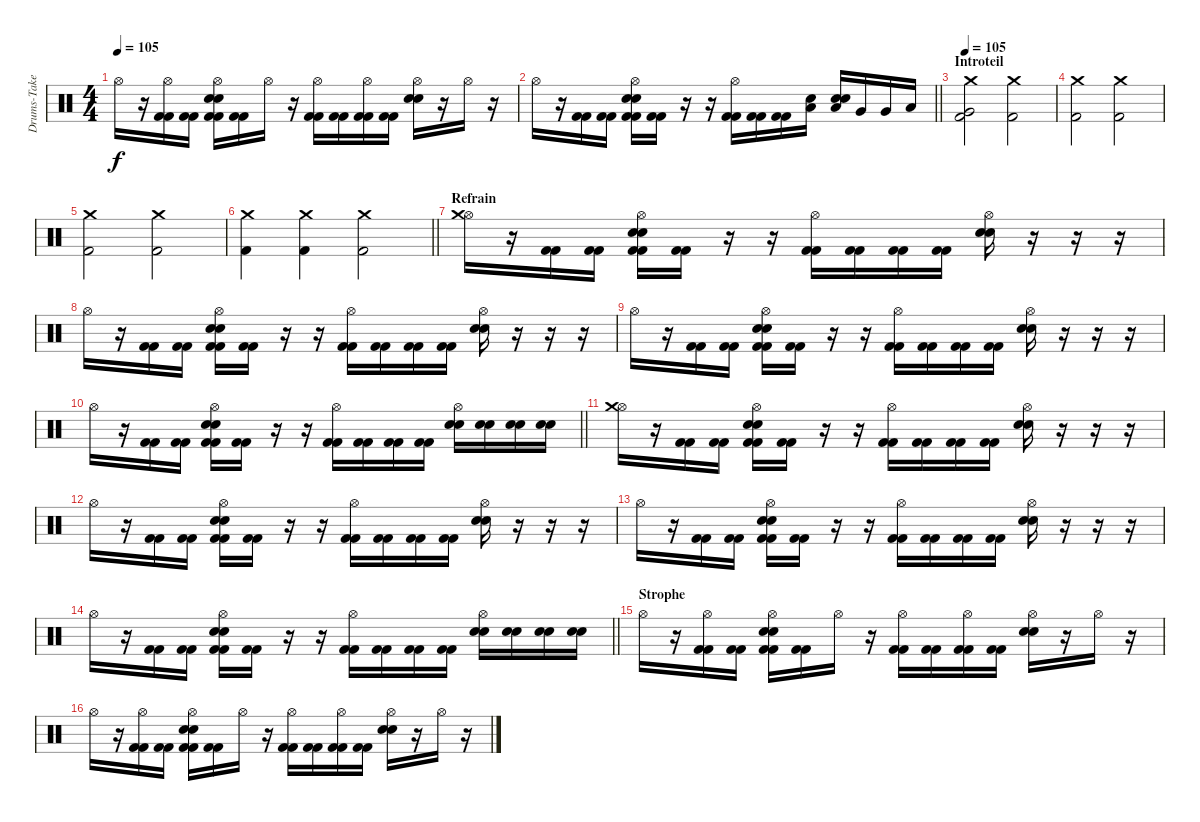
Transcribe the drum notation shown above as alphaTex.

\track ("Drums-Take the midi one!" "Drums-Take") {instrument percussion}
\staff {score}
\articulation defaults
\ts (4 4)
\tempo 105
\clef neutral
\ks c "Hi-Hat (open)".16{dy f}
r.16 ("Kick (hit) 2" "Kick (hit) 2" "Hi-Hat (open)").16 ("Kick (hit) 2" "Kick (hit) 2").16 ("Kick (hit) 2" "Kick (hit) 2" "Hi-Hat (open)" "Electric Snare (hit)" "Electric Snare (hit)").16 ("Kick (hit) 2" "Kick (hit) 2").16 "Hi-Hat (open)".16 r.16 ("Kick (hit) 2" "Kick (hit) 2" "Hi-Hat (open)").16 ("Kick (hit) 2" "Kick (hit) 2").16 ("Kick (hit) 2" "Kick (hit) 2" "Hi-Hat (open)").16 ("Kick (hit) 2" "Kick (hit) 2").16 ("Hi-Hat (open)" "Electric Snare (hit)" "Electric Snare (hit)").16 r.16 "Hi-Hat (open)".16 r.16 |
\barLineRight lightlight "Hi-Hat (open)".16
r.16 ("Kick (hit) 2" "Kick (hit) 2").16 ("Kick (hit) 2" "Kick (hit) 2").16 ("Kick (hit) 2" "Kick (hit) 2" "Hi-Hat (open)" "Electric Snare (hit)" "Electric Snare (hit)").16 ("Kick (hit) 2" "Kick (hit) 2").16 r.16 r.16 ("Kick (hit) 2" "Kick (hit) 2" "Hi-Hat (open)").16 ("Kick (hit) 2" "Kick (hit) 2").16 ("Kick (hit) 2" "Kick (hit) 2").16 ("Low Tom (hit)" "Electric Snare (hit)").16 ("Low Tom (hit)" "Electric Snare (hit)" "Electric Snare (hit)").16 "Very Low Tom (hit)".16 "Very Low Tom (hit)".16 "Low Floor Tom (hit)".16 |
\section ("" "Introteil")
\tempo 105
("Kick (hit) 2" "Crash medium (hit)" "Very Low Tom (hit)").2 ("Kick (hit) 2" "Crash medium (hit)").2 |
("Kick (hit) 2" "Crash medium (hit)").2 ("Kick (hit) 2" "Crash medium (hit)").2 |
("Kick (hit) 2" "Crash medium (hit)").2 ("Kick (hit) 2" "Crash medium (hit)").2 |
\barLineRight lightlight
("Kick (hit) 2" "Crash medium (hit)").4 ("Kick (hit) 2" "Crash medium (hit)").4 ("Kick (hit) 2" "Crash medium (hit)").2 |
\section ("" "Refrain")
("Hi-Hat (open)" "Crash medium (hit)").16 r.16 ("Kick (hit) 2" "Kick (hit) 2").16 ("Kick (hit) 2" "Kick (hit) 2").16 ("Kick (hit) 2" "Kick (hit) 2" "Hi-Hat (open)" "Electric Snare (hit)" "Electric Snare (hit)").16 ("Kick (hit) 2" "Kick (hit) 2").16 r.16 r.16 ("Kick (hit) 2" "Kick (hit) 2" "Hi-Hat (open)").16 ("Kick (hit) 2" "Kick (hit) 2").16 ("Kick (hit) 2" "Kick (hit) 2").16 ("Kick (hit) 2" "Kick (hit) 2").16 ("Hi-Hat (open)" "Electric Snare (hit)" "Electric Snare (hit)").16 r.16 r.16 r.16 |
"Hi-Hat (open)".16 r.16 ("Kick (hit) 2" "Kick (hit) 2").16 ("Kick (hit) 2" "Kick (hit) 2").16 ("Kick (hit) 2" "Kick (hit) 2" "Hi-Hat (open)" "Electric Snare (hit)" "Electric Snare (hit)").16 ("Kick (hit) 2" "Kick (hit) 2").16 r.16 r.16 ("Kick (hit) 2" "Kick (hit) 2" "Hi-Hat (open)").16 ("Kick (hit) 2" "Kick (hit) 2").16 ("Kick (hit) 2" "Kick (hit) 2").16 ("Kick (hit) 2" "Kick (hit) 2").16 ("Hi-Hat (open)" "Electric Snare (hit)" "Electric Snare (hit)").16 r.16 r.16 r.16 |
"Hi-Hat (open)".16 r.16 ("Kick (hit) 2" "Kick (hit) 2").16 ("Kick (hit) 2" "Kick (hit) 2").16 ("Kick (hit) 2" "Kick (hit) 2" "Hi-Hat (open)" "Electric Snare (hit)" "Electric Snare (hit)").16 ("Kick (hit) 2" "Kick (hit) 2").16 r.16 r.16 ("Kick (hit) 2" "Kick (hit) 2" "Hi-Hat (open)").16 ("Kick (hit) 2" "Kick (hit) 2").16 ("Kick (hit) 2" "Kick (hit) 2").16 ("Kick (hit) 2" "Kick (hit) 2").16 ("Hi-Hat (open)" "Electric Snare (hit)" "Electric Snare (hit)").16 r.16 r.16 r.16 |
\barLineRight lightlight "Hi-Hat (open)".16
r.16 ("Kick (hit) 2" "Kick (hit) 2").16 ("Kick (hit) 2" "Kick (hit) 2").16 ("Kick (hit) 2" "Kick (hit) 2" "Hi-Hat (open)" "Electric Snare (hit)" "Electric Snare (hit)").16 ("Kick (hit) 2" "Kick (hit) 2").16 r.16 r.16 ("Kick (hit) 2" "Kick (hit) 2" "Hi-Hat (open)").16 ("Kick (hit) 2" "Kick (hit) 2").16 ("Kick (hit) 2" "Kick (hit) 2").16 ("Kick (hit) 2" "Kick (hit) 2").16 ("Hi-Hat (open)" "Snare (hit) 2" "Snare (hit) 2").16 ("Snare (hit) 2" "Snare (hit) 2").16 ("Snare (hit) 2" "Snare (hit) 2").16 ("Snare (hit) 2" "Snare (hit) 2").16 |
("Hi-Hat (open)" "Crash medium (hit)").16 r.16 ("Kick (hit) 2" "Kick (hit) 2").16 ("Kick (hit) 2" "Kick (hit) 2").16 ("Kick (hit) 2" "Kick (hit) 2" "Hi-Hat (open)" "Electric Snare (hit)" "Electric Snare (hit)").16 ("Kick (hit) 2" "Kick (hit) 2").16 r.16 r.16 ("Kick (hit) 2" "Kick (hit) 2" "Hi-Hat (open)").16 ("Kick (hit) 2" "Kick (hit) 2").16 ("Kick (hit) 2" "Kick (hit) 2").16 ("Kick (hit) 2" "Kick (hit) 2").16 ("Hi-Hat (open)" "Electric Snare (hit)" "Electric Snare (hit)").16 r.16 r.16 r.16 |
"Hi-Hat (open)".16 r.16 ("Kick (hit) 2" "Kick (hit) 2").16 ("Kick (hit) 2" "Kick (hit) 2").16 ("Kick (hit) 2" "Kick (hit) 2" "Hi-Hat (open)" "Electric Snare (hit)" "Electric Snare (hit)").16 ("Kick (hit) 2" "Kick (hit) 2").16 r.16 r.16 ("Kick (hit) 2" "Kick (hit) 2" "Hi-Hat (open)").16 ("Kick (hit) 2" "Kick (hit) 2").16 ("Kick (hit) 2" "Kick (hit) 2").16 ("Kick (hit) 2" "Kick (hit) 2").16 ("Hi-Hat (open)" "Electric Snare (hit)" "Electric Snare (hit)").16 r.16 r.16 r.16 |
"Hi-Hat (open)".16 r.16 ("Kick (hit) 2" "Kick (hit) 2").16 ("Kick (hit) 2" "Kick (hit) 2").16 ("Kick (hit) 2" "Kick (hit) 2" "Hi-Hat (open)" "Electric Snare (hit)" "Electric Snare (hit)").16 ("Kick (hit) 2" "Kick (hit) 2").16 r.16 r.16 ("Kick (hit) 2" "Kick (hit) 2" "Hi-Hat (open)").16 ("Kick (hit) 2" "Kick (hit) 2").16 ("Kick (hit) 2" "Kick (hit) 2").16 ("Kick (hit) 2" "Kick (hit) 2").16 ("Hi-Hat (open)" "Electric Snare (hit)" "Electric Snare (hit)").16 r.16 r.16 r.16 |
\barLineRight lightlight "Hi-Hat (open)".16
r.16 ("Kick (hit) 2" "Kick (hit) 2").16 ("Kick (hit) 2" "Kick (hit) 2").16 ("Kick (hit) 2" "Kick (hit) 2" "Hi-Hat (open)" "Electric Snare (hit)" "Electric Snare (hit)").16 ("Kick (hit) 2" "Kick (hit) 2").16 r.16 r.16 ("Kick (hit) 2" "Kick (hit) 2" "Hi-Hat (open)").16 ("Kick (hit) 2" "Kick (hit) 2").16 ("Kick (hit) 2" "Kick (hit) 2").16 ("Kick (hit) 2" "Kick (hit) 2").16 ("Hi-Hat (open)" "Snare (hit) 2" "Snare (hit) 2").16 ("Snare (hit) 2" "Snare (hit) 2").16 ("Snare (hit) 2" "Snare (hit) 2").16 ("Snare (hit) 2" "Snare (hit) 2").16 |
\section ("" "Strophe")
"Hi-Hat (open)".16 r.16 ("Kick (hit) 2" "Kick (hit) 2" "Hi-Hat (open)").16 ("Kick (hit) 2" "Kick (hit) 2").16 ("Kick (hit) 2" "Kick (hit) 2" "Hi-Hat (open)" "Electric Snare (hit)" "Electric Snare (hit)").16 ("Kick (hit) 2" "Kick (hit) 2").16 "Hi-Hat (open)".16 r.16 ("Kick (hit) 2" "Kick (hit) 2" "Hi-Hat (open)").16 ("Kick (hit) 2" "Kick (hit) 2").16 ("Kick (hit) 2" "Kick (hit) 2" "Hi-Hat (open)").16 ("Kick (hit) 2" "Kick (hit) 2").16 ("Hi-Hat (open)" "Electric Snare (hit)" "Electric Snare (hit)").16 r.16 "Hi-Hat (open)".16 r.16 |
"Hi-Hat (open)".16 r.16 ("Kick (hit) 2" "Kick (hit) 2" "Hi-Hat (open)").16 ("Kick (hit) 2" "Kick (hit) 2").16 ("Kick (hit) 2" "Kick (hit) 2" "Hi-Hat (open)" "Electric Snare (hit)" "Electric Snare (hit)").16 ("Kick (hit) 2" "Kick (hit) 2").16 "Hi-Hat (open)".16 r.16 ("Kick (hit) 2" "Kick (hit) 2" "Hi-Hat (open)").16 ("Kick (hit) 2" "Kick (hit) 2").16 ("Kick (hit) 2" "Kick (hit) 2" "Hi-Hat (open)").16 ("Kick (hit) 2" "Kick (hit) 2").16 ("Hi-Hat (open)" "Electric Snare (hit)" "Electric Snare (hit)").16 r.16 "Hi-Hat (open)".16 r.16
